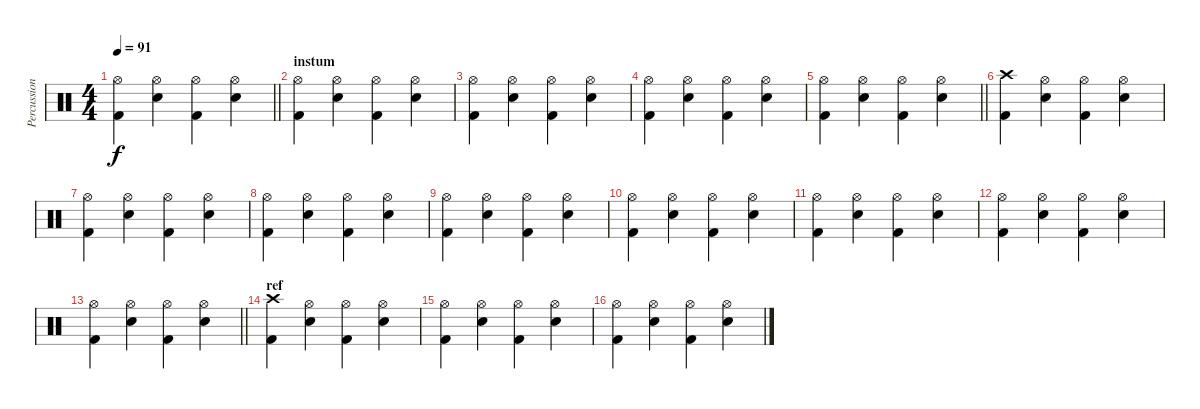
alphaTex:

\track ("Percussion" "Percussion") {instrument percussion}
\staff {score}
\articulation defaults
\ts (4 4)
\tempo 91
\clef neutral
\barLineRight lightlight
\ks c
("Hi-Hat (open)" "Kick (hit) 2").4{dy f} ("Snare (hit) 2" "Hi-Hat (open)").4 ("Hi-Hat (open)" "Kick (hit) 2").4 ("Hi-Hat (open)" "Snare (hit) 2").4 |
\section ("" "instum")
("Hi-Hat (open)" "Kick (hit) 2").4 ("Snare (hit) 2" "Hi-Hat (open)").4 ("Hi-Hat (open)" "Kick (hit) 2").4 ("Hi-Hat (open)" "Snare (hit) 2").4 |
("Hi-Hat (open)" "Kick (hit) 2").4 ("Snare (hit) 2" "Hi-Hat (open)").4 ("Hi-Hat (open)" "Kick (hit) 2").4 ("Hi-Hat (open)" "Snare (hit) 2").4 |
("Hi-Hat (open)" "Kick (hit) 2").4 ("Snare (hit) 2" "Hi-Hat (open)").4 ("Hi-Hat (open)" "Kick (hit) 2").4 ("Hi-Hat (open)" "Snare (hit) 2").4 |
\barLineRight lightlight
("Hi-Hat (open)" "Kick (hit) 2").4 ("Snare (hit) 2" "Hi-Hat (open)").4 ("Hi-Hat (open)" "Kick (hit) 2").4 ("Hi-Hat (open)" "Snare (hit) 2").4 |
("Crash high (hit)" "Kick (hit) 2").4 ("Snare (hit) 2" "Hi-Hat (open)").4 ("Hi-Hat (open)" "Kick (hit) 2").4 ("Hi-Hat (open)" "Snare (hit) 2").4 |
("Hi-Hat (open)" "Kick (hit) 2").4 ("Snare (hit) 2" "Hi-Hat (open)").4 ("Hi-Hat (open)" "Kick (hit) 2").4 ("Hi-Hat (open)" "Snare (hit) 2").4 |
("Hi-Hat (open)" "Kick (hit) 2").4 ("Snare (hit) 2" "Hi-Hat (open)").4 ("Hi-Hat (open)" "Kick (hit) 2").4 ("Hi-Hat (open)" "Snare (hit) 2").4 |
("Hi-Hat (open)" "Kick (hit) 2").4 ("Snare (hit) 2" "Hi-Hat (open)").4 ("Hi-Hat (open)" "Kick (hit) 2").4 ("Hi-Hat (open)" "Snare (hit) 2").4 |
("Hi-Hat (open)" "Kick (hit) 2").4 ("Snare (hit) 2" "Hi-Hat (open)").4 ("Hi-Hat (open)" "Kick (hit) 2").4 ("Hi-Hat (open)" "Snare (hit) 2").4 |
("Hi-Hat (open)" "Kick (hit) 2").4 ("Snare (hit) 2" "Hi-Hat (open)").4 ("Hi-Hat (open)" "Kick (hit) 2").4 ("Hi-Hat (open)" "Snare (hit) 2").4 |
("Hi-Hat (open)" "Kick (hit) 2").4 ("Snare (hit) 2" "Hi-Hat (open)").4 ("Hi-Hat (open)" "Kick (hit) 2").4 ("Hi-Hat (open)" "Snare (hit) 2").4 |
\barLineRight lightlight
("Hi-Hat (open)" "Kick (hit) 2").4 ("Snare (hit) 2" "Hi-Hat (open)").4 ("Hi-Hat (open)" "Kick (hit) 2").4 ("Hi-Hat (open)" "Snare (hit) 2").4 |
\section ("" "ref")
("Crash high (hit)" "Kick (hit) 2").4 ("Snare (hit) 2" "Hi-Hat (open)").4 ("Hi-Hat (open)" "Kick (hit) 2").4 ("Hi-Hat (open)" "Snare (hit) 2").4 |
("Hi-Hat (open)" "Kick (hit) 2").4 ("Snare (hit) 2" "Hi-Hat (open)").4 ("Hi-Hat (open)" "Kick (hit) 2").4 ("Hi-Hat (open)" "Snare (hit) 2").4 |
("Hi-Hat (open)" "Kick (hit) 2").4 ("Snare (hit) 2" "Hi-Hat (open)").4 ("Hi-Hat (open)" "Kick (hit) 2").4 ("Hi-Hat (open)" "Snare (hit) 2").4
